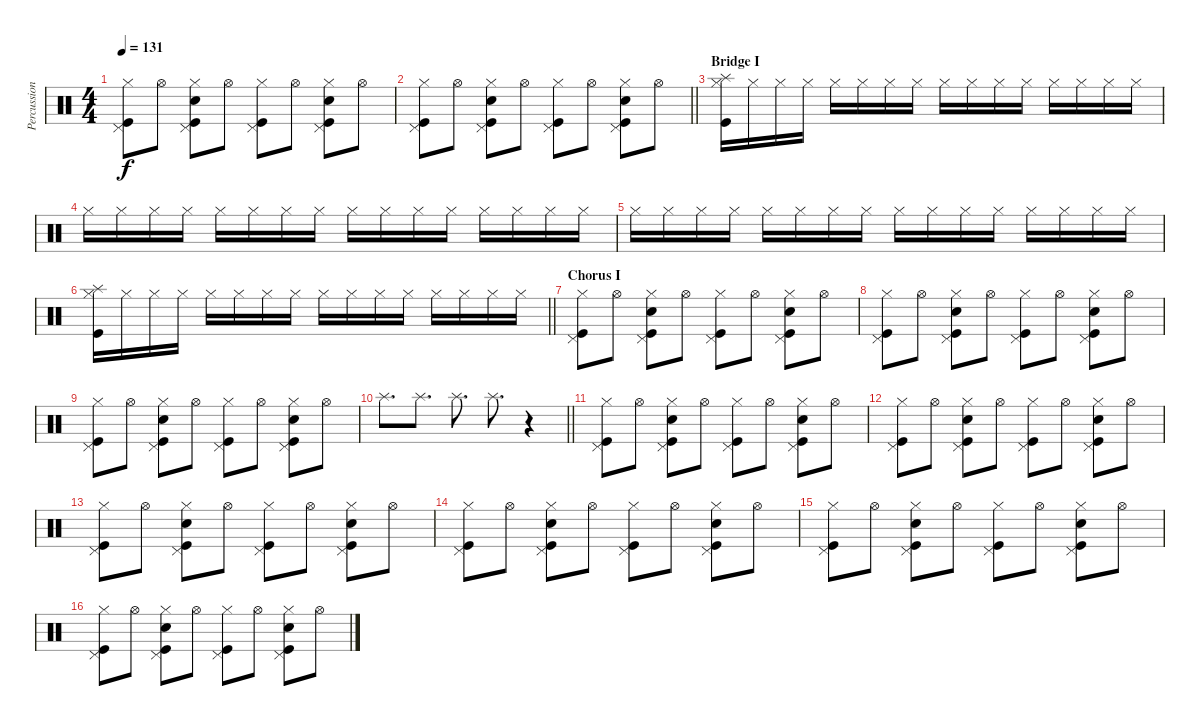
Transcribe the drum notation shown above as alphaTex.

\track ("Percussion II" "Percussion") {instrument percussion}
\staff {score}
\articulation defaults
\ts (4 4)
\tempo 131
\clef neutral
\ks c
("Pedal Hi-Hat (hit)" "Hi-Hat (closed)" "Kick (hit)").8{dy f} "Hi-Hat (open)".8 ("Pedal Hi-Hat (hit)" "Hand Clap (hit)" "Hi-Hat (closed)" "Kick (hit)").8 "Hi-Hat (open)".8 ("Pedal Hi-Hat (hit)" "Hi-Hat (closed)" "Kick (hit)").8 "Hi-Hat (open)".8 ("Pedal Hi-Hat (hit)" "Hand Clap (hit)" "Hi-Hat (closed)" "Kick (hit)").8 "Hi-Hat (open)".8 |
\barLineRight lightlight
("Pedal Hi-Hat (hit)" "Hi-Hat (closed)" "Kick (hit)").8 "Hi-Hat (open)".8 ("Pedal Hi-Hat (hit)" "Hand Clap (hit)" "Hi-Hat (closed)" "Kick (hit)").8 "Hi-Hat (open)".8 ("Pedal Hi-Hat (hit)" "Hi-Hat (closed)" "Kick (hit)").8 "Hi-Hat (open)".8 ("Pedal Hi-Hat (hit)" "Hand Clap (hit)" "Hi-Hat (closed)" "Kick (hit)").8 "Hi-Hat (open)".8 |
\section ("" "Bridge I")
("Splash (hit)" "Hi-Hat (closed)" "Kick (hit)").16 "Hi-Hat (closed)".16 "Hi-Hat (closed)".16 "Hi-Hat (closed)".16 "Hi-Hat (closed)".16 "Hi-Hat (closed)".16 "Hi-Hat (closed)".16 "Hi-Hat (closed)".16 "Hi-Hat (closed)".16 "Hi-Hat (closed)".16 "Hi-Hat (closed)".16 "Hi-Hat (closed)".16 "Hi-Hat (closed)".16 "Hi-Hat (closed)".16 "Hi-Hat (closed)".16 "Hi-Hat (closed)".16 |
"Hi-Hat (closed)".16 "Hi-Hat (closed)".16 "Hi-Hat (closed)".16 "Hi-Hat (closed)".16 "Hi-Hat (closed)".16 "Hi-Hat (closed)".16 "Hi-Hat (closed)".16 "Hi-Hat (closed)".16 "Hi-Hat (closed)".16 "Hi-Hat (closed)".16 "Hi-Hat (closed)".16 "Hi-Hat (closed)".16 "Hi-Hat (closed)".16 "Hi-Hat (closed)".16 "Hi-Hat (closed)".16 "Hi-Hat (closed)".16 |
"Hi-Hat (closed)".16 "Hi-Hat (closed)".16 "Hi-Hat (closed)".16 "Hi-Hat (closed)".16 "Hi-Hat (closed)".16 "Hi-Hat (closed)".16 "Hi-Hat (closed)".16 "Hi-Hat (closed)".16 "Hi-Hat (closed)".16 "Hi-Hat (closed)".16 "Hi-Hat (closed)".16 "Hi-Hat (closed)".16 "Hi-Hat (closed)".16 "Hi-Hat (closed)".16 "Hi-Hat (closed)".16 "Hi-Hat (closed)".16 |
\barLineRight lightlight
("Splash (hit)" "Hi-Hat (closed)" "Kick (hit)").16 "Hi-Hat (closed)".16 "Hi-Hat (closed)".16 "Hi-Hat (closed)".16 "Hi-Hat (closed)".16 "Hi-Hat (closed)".16 "Hi-Hat (closed)".16 "Hi-Hat (closed)".16 "Hi-Hat (closed)".16 "Hi-Hat (closed)".16 "Hi-Hat (closed)".16 "Hi-Hat (closed)".16 "Hi-Hat (closed)".16 "Hi-Hat (closed)".16 "Hi-Hat (closed)".16 "Hi-Hat (closed)".16 |
\section ("" "Chorus I")
("Pedal Hi-Hat (hit)" "Hi-Hat (closed)" "Kick (hit)").8 "Hi-Hat (open)".8 ("Pedal Hi-Hat (hit)" "Hand Clap (hit)" "Hi-Hat (closed)" "Kick (hit)").8 "Hi-Hat (open)".8 ("Pedal Hi-Hat (hit)" "Hi-Hat (closed)" "Kick (hit)").8 "Hi-Hat (open)".8 ("Pedal Hi-Hat (hit)" "Hand Clap (hit)" "Hi-Hat (closed)" "Kick (hit)").8 "Hi-Hat (open)".8 |
("Pedal Hi-Hat (hit)" "Hi-Hat (closed)" "Kick (hit)").8 "Hi-Hat (open)".8 ("Pedal Hi-Hat (hit)" "Hand Clap (hit)" "Hi-Hat (closed)" "Kick (hit)").8 "Hi-Hat (open)".8 ("Pedal Hi-Hat (hit)" "Hi-Hat (closed)" "Kick (hit)").8 "Hi-Hat (open)".8 ("Pedal Hi-Hat (hit)" "Hand Clap (hit)" "Hi-Hat (closed)" "Kick (hit)").8 "Hi-Hat (open)".8 |
("Pedal Hi-Hat (hit)" "Hi-Hat (closed)" "Kick (hit)").8 "Hi-Hat (open)".8 ("Pedal Hi-Hat (hit)" "Hand Clap (hit)" "Hi-Hat (closed)" "Kick (hit)").8 "Hi-Hat (open)".8 ("Pedal Hi-Hat (hit)" "Hi-Hat (closed)" "Kick (hit)").8 "Hi-Hat (open)".8 ("Pedal Hi-Hat (hit)" "Hand Clap (hit)" "Hi-Hat (closed)" "Kick (hit)").8 "Hi-Hat (open)".8 |
\barLineRight lightlight "Splash (hit)".8{d} "Splash (hit)".8{d} "Splash (hit)".8{d} "Splash (hit)".8{d}
r.4 |
\section ("" "")
("Pedal Hi-Hat (hit)" "Hi-Hat (closed)" "Kick (hit)").8 "Hi-Hat (open)".8 ("Pedal Hi-Hat (hit)" "Hand Clap (hit)" "Hi-Hat (closed)" "Kick (hit)").8 "Hi-Hat (open)".8 ("Pedal Hi-Hat (hit)" "Hi-Hat (closed)" "Kick (hit)").8 "Hi-Hat (open)".8 ("Pedal Hi-Hat (hit)" "Hand Clap (hit)" "Hi-Hat (closed)" "Kick (hit)").8 "Hi-Hat (open)".8 |
("Pedal Hi-Hat (hit)" "Hi-Hat (closed)" "Kick (hit)").8 "Hi-Hat (open)".8 ("Pedal Hi-Hat (hit)" "Hand Clap (hit)" "Hi-Hat (closed)" "Kick (hit)").8 "Hi-Hat (open)".8 ("Pedal Hi-Hat (hit)" "Hi-Hat (closed)" "Kick (hit)").8 "Hi-Hat (open)".8 ("Pedal Hi-Hat (hit)" "Hand Clap (hit)" "Hi-Hat (closed)" "Kick (hit)").8 "Hi-Hat (open)".8 |
("Pedal Hi-Hat (hit)" "Hi-Hat (closed)" "Kick (hit)").8 "Hi-Hat (open)".8 ("Pedal Hi-Hat (hit)" "Hand Clap (hit)" "Hi-Hat (closed)" "Kick (hit)").8 "Hi-Hat (open)".8 ("Pedal Hi-Hat (hit)" "Hi-Hat (closed)" "Kick (hit)").8 "Hi-Hat (open)".8 ("Pedal Hi-Hat (hit)" "Hand Clap (hit)" "Hi-Hat (closed)" "Kick (hit)").8 "Hi-Hat (open)".8 |
("Pedal Hi-Hat (hit)" "Hi-Hat (closed)" "Kick (hit)").8 "Hi-Hat (open)".8 ("Pedal Hi-Hat (hit)" "Hand Clap (hit)" "Hi-Hat (closed)" "Kick (hit)").8 "Hi-Hat (open)".8 ("Pedal Hi-Hat (hit)" "Hi-Hat (closed)" "Kick (hit)").8 "Hi-Hat (open)".8 ("Pedal Hi-Hat (hit)" "Hand Clap (hit)" "Hi-Hat (closed)" "Kick (hit)").8 "Hi-Hat (open)".8 |
("Pedal Hi-Hat (hit)" "Hi-Hat (closed)" "Kick (hit)").8 "Hi-Hat (open)".8 ("Pedal Hi-Hat (hit)" "Hand Clap (hit)" "Hi-Hat (closed)" "Kick (hit)").8 "Hi-Hat (open)".8 ("Pedal Hi-Hat (hit)" "Hi-Hat (closed)" "Kick (hit)").8 "Hi-Hat (open)".8 ("Pedal Hi-Hat (hit)" "Hand Clap (hit)" "Hi-Hat (closed)" "Kick (hit)").8 "Hi-Hat (open)".8 |
("Pedal Hi-Hat (hit)" "Hi-Hat (closed)" "Kick (hit)").8 "Hi-Hat (open)".8 ("Pedal Hi-Hat (hit)" "Hand Clap (hit)" "Hi-Hat (closed)" "Kick (hit)").8 "Hi-Hat (open)".8 ("Pedal Hi-Hat (hit)" "Hi-Hat (closed)" "Kick (hit)").8 "Hi-Hat (open)".8 ("Pedal Hi-Hat (hit)" "Hand Clap (hit)" "Hi-Hat (closed)" "Kick (hit)").8 "Hi-Hat (open)".8
